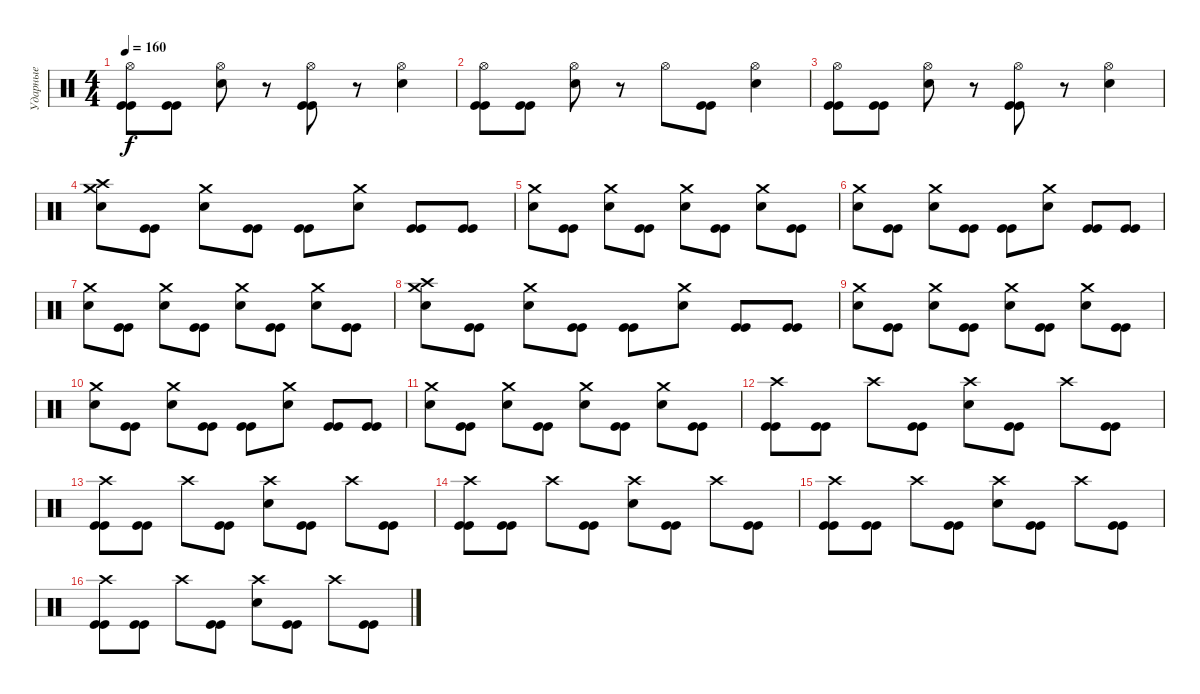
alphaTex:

\track ("Ударные" "Ударные") {instrument percussion}
\staff {score}
\articulation defaults
\ts (4 4)
\tempo 160
\clef neutral
\ks c
("Hi-Hat (open)" "Kick (hit)" "Kick (hit)").8{dy f} ("Kick (hit)" "Kick (hit)").8 ("Hi-Hat (open)" "Electric Snare (hit)").8 r.8 ("Hi-Hat (open)" "Kick (hit)" "Kick (hit)").8 r.8 ("Hi-Hat (open)" "Electric Snare (hit)").4 |
("Hi-Hat (open)" "Kick (hit)" "Kick (hit)").8 ("Kick (hit)" "Kick (hit)").8 ("Hi-Hat (open)" "Electric Snare (hit)").8 r.8 "Hi-Hat (open)".8 ("Kick (hit)" "Kick (hit)").8 ("Hi-Hat (open)" "Electric Snare (hit)").4 |
("Hi-Hat (open)" "Kick (hit)" "Kick (hit)").8 ("Kick (hit)" "Kick (hit)").8 ("Hi-Hat (open)" "Electric Snare (hit)").8 r.8 ("Hi-Hat (open)" "Kick (hit)" "Kick (hit)").8 r.8 ("Hi-Hat (open)" "Electric Snare (hit)").4 |
("Crash high (hit)" "Crash medium (hit)" "Electric Snare (hit)").8 ("Kick (hit)" "Kick (hit)").8 ("Crash medium (hit)" "Electric Snare (hit)").8 ("Kick (hit)" "Kick (hit)").8 ("Kick (hit)" "Kick (hit)").8 ("Crash medium (hit)" "Electric Snare (hit)").8 ("Kick (hit)" "Kick (hit)").8 ("Kick (hit)" "Kick (hit)").8 |
("Crash medium (hit)" "Electric Snare (hit)").8 ("Kick (hit)" "Kick (hit)").8 ("Crash medium (hit)" "Electric Snare (hit)").8 ("Kick (hit)" "Kick (hit)").8 ("Crash medium (hit)" "Electric Snare (hit)").8 ("Kick (hit)" "Kick (hit)").8 ("Crash medium (hit)" "Electric Snare (hit)").8 ("Kick (hit)" "Kick (hit)").8 |
("Crash medium (hit)" "Electric Snare (hit)").8 ("Kick (hit)" "Kick (hit)").8 ("Crash medium (hit)" "Electric Snare (hit)").8 ("Kick (hit)" "Kick (hit)").8 ("Kick (hit)" "Kick (hit)").8 ("Crash medium (hit)" "Electric Snare (hit)").8 ("Kick (hit)" "Kick (hit)").8 ("Kick (hit)" "Kick (hit)").8 |
("Crash medium (hit)" "Electric Snare (hit)").8 ("Kick (hit)" "Kick (hit)").8 ("Crash medium (hit)" "Electric Snare (hit)").8 ("Kick (hit)" "Kick (hit)").8 ("Crash medium (hit)" "Electric Snare (hit)").8 ("Kick (hit)" "Kick (hit)").8 ("Crash medium (hit)" "Electric Snare (hit)").8 ("Kick (hit)" "Kick (hit)").8 |
("Crash high (hit)" "Crash medium (hit)" "Electric Snare (hit)").8 ("Kick (hit)" "Kick (hit)").8 ("Crash medium (hit)" "Electric Snare (hit)").8 ("Kick (hit)" "Kick (hit)").8 ("Kick (hit)" "Kick (hit)").8 ("Crash medium (hit)" "Electric Snare (hit)").8 ("Kick (hit)" "Kick (hit)").8 ("Kick (hit)" "Kick (hit)").8 |
("Crash medium (hit)" "Electric Snare (hit)").8 ("Kick (hit)" "Kick (hit)").8 ("Crash medium (hit)" "Electric Snare (hit)").8 ("Kick (hit)" "Kick (hit)").8 ("Crash medium (hit)" "Electric Snare (hit)").8 ("Kick (hit)" "Kick (hit)").8 ("Crash medium (hit)" "Electric Snare (hit)").8 ("Kick (hit)" "Kick (hit)").8 |
("Crash medium (hit)" "Electric Snare (hit)").8 ("Kick (hit)" "Kick (hit)").8 ("Crash medium (hit)" "Electric Snare (hit)").8 ("Kick (hit)" "Kick (hit)").8 ("Kick (hit)" "Kick (hit)").8 ("Crash medium (hit)" "Electric Snare (hit)").8 ("Kick (hit)" "Kick (hit)").8 ("Kick (hit)" "Kick (hit)").8 |
("Crash medium (hit)" "Electric Snare (hit)").8 ("Kick (hit)" "Kick (hit)").8 ("Crash medium (hit)" "Electric Snare (hit)").8 ("Kick (hit)" "Kick (hit)").8 ("Crash medium (hit)" "Electric Snare (hit)").8 ("Kick (hit)" "Kick (hit)").8 ("Crash medium (hit)" "Electric Snare (hit)").8 ("Kick (hit)" "Kick (hit)").8 |
("Crash high (hit)" "Kick (hit)" "Kick (hit)").8 ("Kick (hit)" "Kick (hit)").8 "Crash high (hit)".8 ("Kick (hit)" "Kick (hit)").8 ("Crash high (hit)" "Electric Snare (hit)").8 ("Kick (hit)" "Kick (hit)").8 "Crash high (hit)".8 ("Kick (hit)" "Kick (hit)").8 |
("Crash high (hit)" "Kick (hit)" "Kick (hit)").8 ("Kick (hit)" "Kick (hit)").8 "Crash high (hit)".8 ("Kick (hit)" "Kick (hit)").8 ("Crash high (hit)" "Electric Snare (hit)").8 ("Kick (hit)" "Kick (hit)").8 "Crash high (hit)".8 ("Kick (hit)" "Kick (hit)").8 |
("Crash high (hit)" "Kick (hit)" "Kick (hit)").8 ("Kick (hit)" "Kick (hit)").8 "Crash high (hit)".8 ("Kick (hit)" "Kick (hit)").8 ("Crash high (hit)" "Electric Snare (hit)").8 ("Kick (hit)" "Kick (hit)").8 "Crash high (hit)".8 ("Kick (hit)" "Kick (hit)").8 |
("Crash high (hit)" "Kick (hit)" "Kick (hit)").8 ("Kick (hit)" "Kick (hit)").8 "Crash high (hit)".8 ("Kick (hit)" "Kick (hit)").8 ("Crash high (hit)" "Electric Snare (hit)").8 ("Kick (hit)" "Kick (hit)").8 "Crash high (hit)".8 ("Kick (hit)" "Kick (hit)").8 |
("Crash high (hit)" "Kick (hit)" "Kick (hit)").8 ("Kick (hit)" "Kick (hit)").8 "Crash high (hit)".8 ("Kick (hit)" "Kick (hit)").8 ("Crash high (hit)" "Electric Snare (hit)").8 ("Kick (hit)" "Kick (hit)").8 "Crash high (hit)".8 ("Kick (hit)" "Kick (hit)").8
